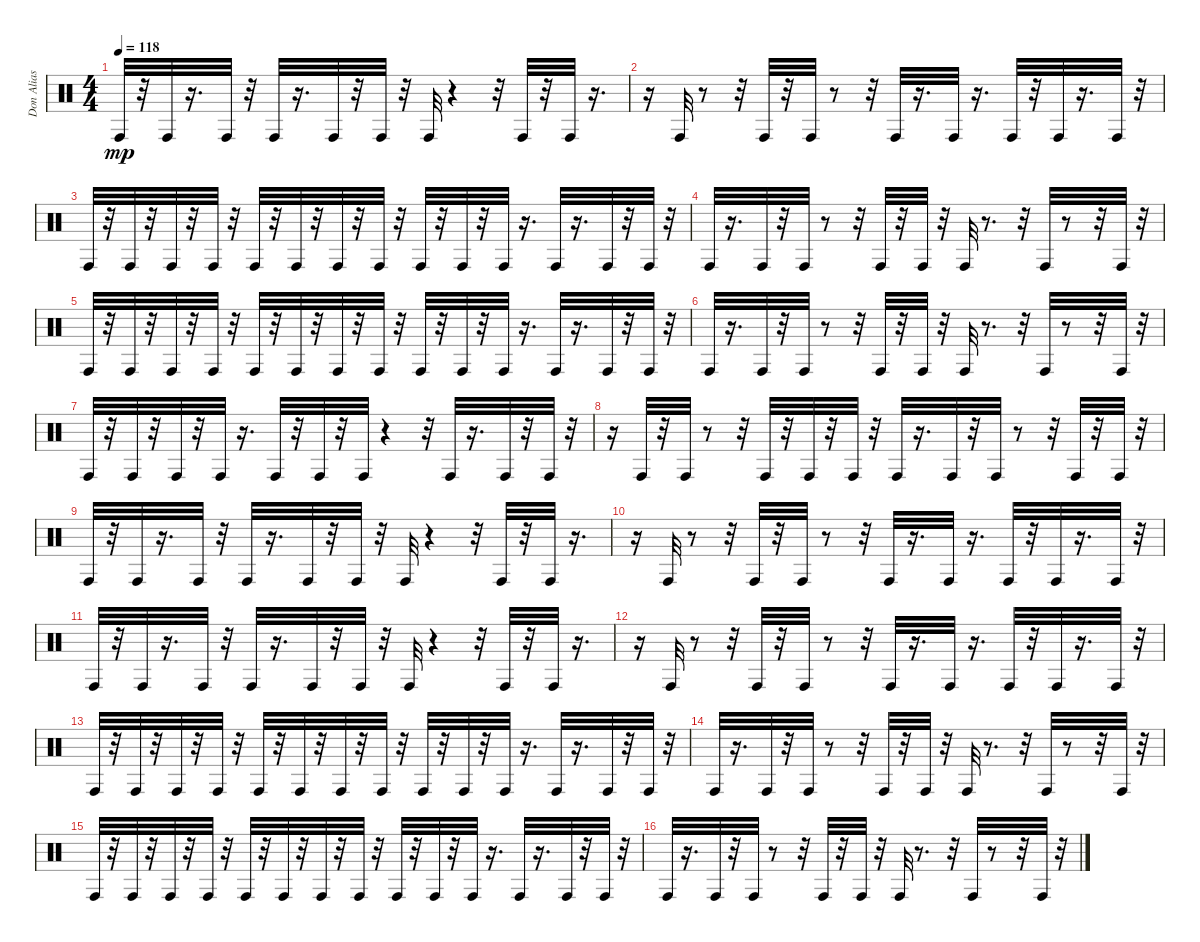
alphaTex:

\track ("Don Alias" "Don Alias") {instrument percussion}
\staff {score}
\articulation defaults
\ts (4 4)
\tempo 118
\clef neutral
\ks c "Conga high (hit)".32{dy mp}
r.32 "Conga high (hit)".32 r.16{d} "Conga high (hit)".32 r.32 "Conga high (hit)".32 r.16{d} "Conga high (hit)".32 r.32 "Conga high (hit)".32 r.32 "Conga high (hit)".32 r.4 r.32 "Conga high (hit)".32 r.32 "Conga high (hit)".32 r.16{d} |
r.16 "Conga high (hit)".32 r.8 r.32 "Conga high (hit)".32 r.32 "Conga high (hit)".32 r.8 r.32 "Conga high (hit)".32 r.16{d} "Conga high (hit)".32 r.16{d} "Conga high (hit)".32 r.32 "Conga high (hit)".32 r.16{d} "Conga high (hit)".32 r.32 |
"Conga high (hit)".32 r.32 "Conga high (hit)".32 r.32 "Conga high (hit)".32 r.32 "Conga high (hit)".32 r.32 "Conga high (hit)".32 r.32 "Conga high (hit)".32 r.32 "Conga high (hit)".32 r.32 "Conga high (hit)".32 r.32 "Conga high (hit)".32 r.32 "Conga high (hit)".32 r.32 "Conga high (hit)".32 r.16{d} "Conga high (hit)".32 r.16{d} "Conga high (hit)".32 r.32 "Conga high (hit)".32 r.32 |
"Conga high (hit)".32 r.16{d} "Conga high (hit)".32 r.32 "Conga high (hit)".32 r.8 r.32 "Conga high (hit)".32 r.32 "Conga high (hit)".32 r.32 "Conga high (hit)".32 r.8{d} r.32 "Conga high (hit)".32 r.8 r.32 "Conga high (hit)".32 r.32 |
"Conga high (hit)".32 r.32 "Conga high (hit)".32 r.32 "Conga high (hit)".32 r.32 "Conga high (hit)".32 r.32 "Conga high (hit)".32 r.32 "Conga high (hit)".32 r.32 "Conga high (hit)".32 r.32 "Conga high (hit)".32 r.32 "Conga high (hit)".32 r.32 "Conga high (hit)".32 r.32 "Conga high (hit)".32 r.16{d} "Conga high (hit)".32 r.16{d} "Conga high (hit)".32 r.32 "Conga high (hit)".32 r.32 |
"Conga high (hit)".32 r.16{d} "Conga high (hit)".32 r.32 "Conga high (hit)".32 r.8 r.32 "Conga high (hit)".32 r.32 "Conga high (hit)".32 r.32 "Conga high (hit)".32 r.8{d} r.32 "Conga high (hit)".32 r.8 r.32 "Conga high (hit)".32 r.32 |
"Conga high (hit)".32 r.32 "Conga high (hit)".32 r.32 "Conga high (hit)".32 r.32 "Conga high (hit)".32 r.16{d} "Conga high (hit)".32 r.32 "Conga high (hit)".32 r.32 "Conga high (hit)".32 r.4 r.32 "Conga high (hit)".32 r.16{d} "Conga high (hit)".32 r.32 "Conga high (hit)".32 r.32 |
r.16 "Conga high (hit)".32 r.32 "Conga high (hit)".32 r.8 r.32 "Conga high (hit)".32 r.32 "Conga high (hit)".32 r.32 "Conga high (hit)".32 r.32 "Conga high (hit)".32 r.16{d} "Conga high (hit)".32 r.32 "Conga high (hit)".32 r.8 r.32 "Conga high (hit)".32 r.32 "Conga high (hit)".32 r.32 |
"Conga high (hit)".32 r.32 "Conga high (hit)".32 r.16{d} "Conga high (hit)".32 r.32 "Conga high (hit)".32 r.16{d} "Conga high (hit)".32 r.32 "Conga high (hit)".32 r.32 "Conga high (hit)".32 r.4 r.32 "Conga high (hit)".32 r.32 "Conga high (hit)".32 r.16{d} |
r.16 "Conga high (hit)".32 r.8 r.32 "Conga high (hit)".32 r.32 "Conga high (hit)".32 r.8 r.32 "Conga high (hit)".32 r.16{d} "Conga high (hit)".32 r.16{d} "Conga high (hit)".32 r.32 "Conga high (hit)".32 r.16{d} "Conga high (hit)".32 r.32 |
"Conga high (hit)".32 r.32 "Conga high (hit)".32 r.16{d} "Conga high (hit)".32 r.32 "Conga high (hit)".32 r.16{d} "Conga high (hit)".32 r.32 "Conga high (hit)".32 r.32 "Conga high (hit)".32 r.4 r.32 "Conga high (hit)".32 r.32 "Conga high (hit)".32 r.16{d} |
r.16 "Conga high (hit)".32 r.8 r.32 "Conga high (hit)".32 r.32 "Conga high (hit)".32 r.8 r.32 "Conga high (hit)".32 r.16{d} "Conga high (hit)".32 r.16{d} "Conga high (hit)".32 r.32 "Conga high (hit)".32 r.16{d} "Conga high (hit)".32 r.32 |
"Conga high (hit)".32 r.32 "Conga high (hit)".32 r.32 "Conga high (hit)".32 r.32 "Conga high (hit)".32 r.32 "Conga high (hit)".32 r.32 "Conga high (hit)".32 r.32 "Conga high (hit)".32 r.32 "Conga high (hit)".32 r.32 "Conga high (hit)".32 r.32 "Conga high (hit)".32 r.32 "Conga high (hit)".32 r.16{d} "Conga high (hit)".32 r.16{d} "Conga high (hit)".32 r.32 "Conga high (hit)".32 r.32 |
"Conga high (hit)".32 r.16{d} "Conga high (hit)".32 r.32 "Conga high (hit)".32 r.8 r.32 "Conga high (hit)".32 r.32 "Conga high (hit)".32 r.32 "Conga high (hit)".32 r.8{d} r.32 "Conga high (hit)".32 r.8 r.32 "Conga high (hit)".32 r.32 |
"Conga high (hit)".32 r.32 "Conga high (hit)".32 r.32 "Conga high (hit)".32 r.32 "Conga high (hit)".32 r.32 "Conga high (hit)".32 r.32 "Conga high (hit)".32 r.32 "Conga high (hit)".32 r.32 "Conga high (hit)".32 r.32 "Conga high (hit)".32 r.32 "Conga high (hit)".32 r.32 "Conga high (hit)".32 r.16{d} "Conga high (hit)".32 r.16{d} "Conga high (hit)".32 r.32 "Conga high (hit)".32 r.32 |
"Conga high (hit)".32 r.16{d} "Conga high (hit)".32 r.32 "Conga high (hit)".32 r.8 r.32 "Conga high (hit)".32 r.32 "Conga high (hit)".32 r.32 "Conga high (hit)".32 r.8{d} r.32 "Conga high (hit)".32 r.8 r.32 "Conga high (hit)".32 r.32
